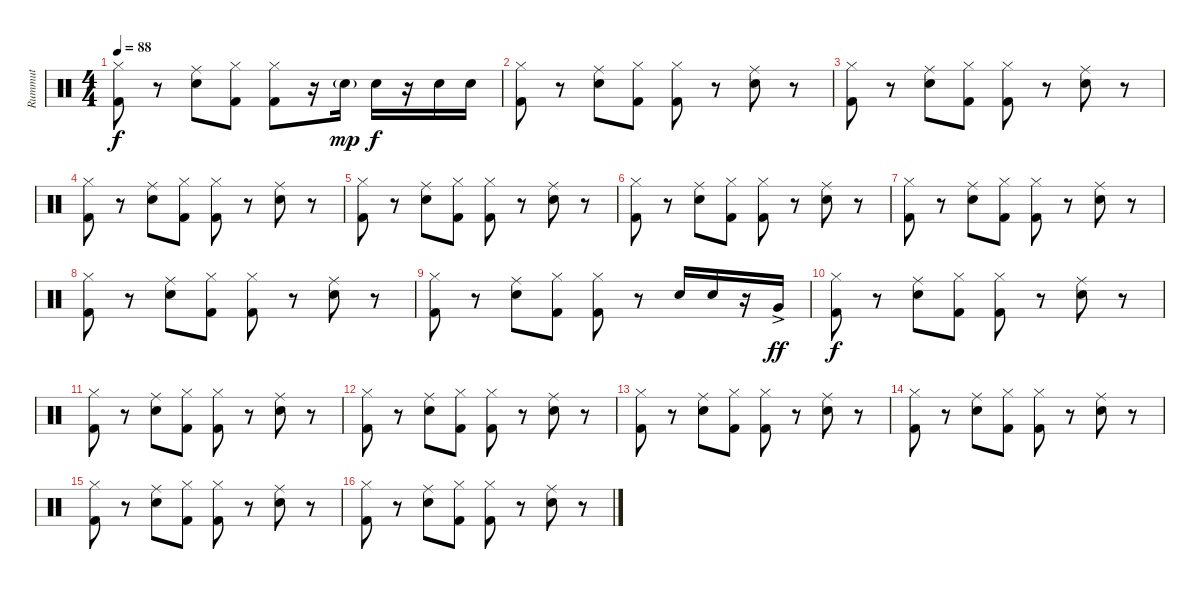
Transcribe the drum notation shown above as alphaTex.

\track ("Rummut" "Rummut") {instrument percussion}
\staff {score}
\articulation defaults
\ts (4 4)
\tempo 88
\clef neutral
\ks c
("Hi-Hat (closed)" "Kick (hit) 2").8{dy f} r.8 ("Ride (middle)" "Electric Snare (hit)").8 ("Hi-Hat (closed)" "Kick (hit) 2").8 ("Hi-Hat (closed)" "Kick (hit) 2").8 r.16 "Snare (hit) 2"{g}.16{dy mp} "Snare (hit) 2".16{dy f} r.16 "Snare (hit) 2".16 "Snare (hit) 2".16 |
("Hi-Hat (closed)" "Kick (hit) 2").8 r.8 ("Ride (middle)" "Electric Snare (hit)").8 ("Hi-Hat (closed)" "Kick (hit) 2").8 ("Hi-Hat (closed)" "Kick (hit) 2").8 r.8 ("Ride (middle)" "Electric Snare (hit)").8 r.8 |
("Hi-Hat (closed)" "Kick (hit) 2").8 r.8 ("Ride (middle)" "Electric Snare (hit)").8 ("Hi-Hat (closed)" "Kick (hit) 2").8 ("Hi-Hat (closed)" "Kick (hit) 2").8 r.8 ("Ride (middle)" "Electric Snare (hit)").8 r.8 |
("Hi-Hat (closed)" "Kick (hit) 2").8 r.8 ("Ride (middle)" "Electric Snare (hit)").8 ("Hi-Hat (closed)" "Kick (hit) 2").8 ("Hi-Hat (closed)" "Kick (hit) 2").8 r.8 ("Ride (middle)" "Electric Snare (hit)").8 r.8 |
("Hi-Hat (closed)" "Kick (hit) 2").8 r.8 ("Ride (middle)" "Electric Snare (hit)").8 ("Hi-Hat (closed)" "Kick (hit) 2").8 ("Hi-Hat (closed)" "Kick (hit) 2").8 r.8 ("Ride (middle)" "Electric Snare (hit)").8 r.8 |
("Hi-Hat (closed)" "Kick (hit) 2").8 r.8 ("Ride (middle)" "Electric Snare (hit)").8 ("Hi-Hat (closed)" "Kick (hit) 2").8 ("Hi-Hat (closed)" "Kick (hit) 2").8 r.8 ("Ride (middle)" "Electric Snare (hit)").8 r.8 |
("Hi-Hat (closed)" "Kick (hit) 2").8 r.8 ("Ride (middle)" "Electric Snare (hit)").8 ("Hi-Hat (closed)" "Kick (hit) 2").8 ("Hi-Hat (closed)" "Kick (hit) 2").8 r.8 ("Ride (middle)" "Electric Snare (hit)").8 r.8 |
("Hi-Hat (closed)" "Kick (hit) 2").8 r.8 ("Ride (middle)" "Electric Snare (hit)").8 ("Hi-Hat (closed)" "Kick (hit) 2").8 ("Hi-Hat (closed)" "Kick (hit) 2").8 r.8 ("Ride (middle)" "Electric Snare (hit)").8 r.8 |
("Hi-Hat (closed)" "Kick (hit) 2").8 r.8 ("Ride (middle)" "Electric Snare (hit)").8 ("Hi-Hat (closed)" "Kick (hit) 2").8 ("Hi-Hat (closed)" "Kick (hit) 2").8 r.8 "Snare (hit) 2".16 "Snare (hit) 2".16 r.16 "Very Low Tom (hit)"{ac}.16{dy ff} |
("Hi-Hat (closed)" "Kick (hit) 2").8{dy f} r.8 ("Ride (middle)" "Electric Snare (hit)").8 ("Hi-Hat (closed)" "Kick (hit) 2").8 ("Hi-Hat (closed)" "Kick (hit) 2").8 r.8 ("Ride (middle)" "Electric Snare (hit)").8 r.8 |
("Hi-Hat (closed)" "Kick (hit) 2").8 r.8 ("Ride (middle)" "Electric Snare (hit)").8 ("Hi-Hat (closed)" "Kick (hit) 2").8 ("Hi-Hat (closed)" "Kick (hit) 2").8 r.8 ("Ride (middle)" "Electric Snare (hit)").8 r.8 |
("Hi-Hat (closed)" "Kick (hit) 2").8 r.8 ("Ride (middle)" "Electric Snare (hit)").8 ("Hi-Hat (closed)" "Kick (hit) 2").8 ("Hi-Hat (closed)" "Kick (hit) 2").8 r.8 ("Ride (middle)" "Electric Snare (hit)").8 r.8 |
("Hi-Hat (closed)" "Kick (hit) 2").8 r.8 ("Ride (middle)" "Electric Snare (hit)").8 ("Hi-Hat (closed)" "Kick (hit) 2").8 ("Hi-Hat (closed)" "Kick (hit) 2").8 r.8 ("Ride (middle)" "Electric Snare (hit)").8 r.8 |
("Hi-Hat (closed)" "Kick (hit) 2").8 r.8 ("Ride (middle)" "Electric Snare (hit)").8 ("Hi-Hat (closed)" "Kick (hit) 2").8 ("Hi-Hat (closed)" "Kick (hit) 2").8 r.8 ("Ride (middle)" "Electric Snare (hit)").8 r.8 |
("Hi-Hat (closed)" "Kick (hit) 2").8 r.8 ("Ride (middle)" "Electric Snare (hit)").8 ("Hi-Hat (closed)" "Kick (hit) 2").8 ("Hi-Hat (closed)" "Kick (hit) 2").8 r.8 ("Ride (middle)" "Electric Snare (hit)").8 r.8 |
("Hi-Hat (closed)" "Kick (hit) 2").8{volume 0} r.8 ("Ride (middle)" "Electric Snare (hit)").8 ("Hi-Hat (closed)" "Kick (hit) 2").8 ("Hi-Hat (closed)" "Kick (hit) 2").8 r.8 ("Ride (middle)" "Electric Snare (hit)").8 r.8
